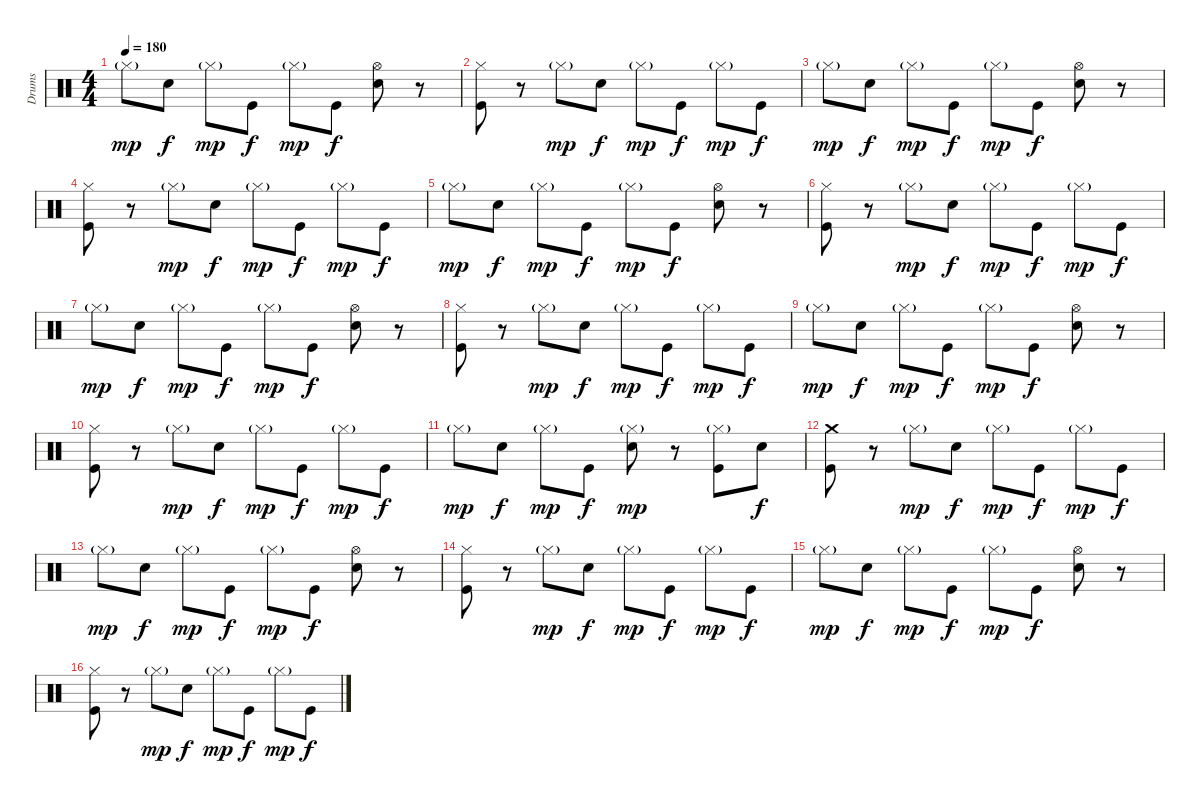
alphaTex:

\track ("Drums" "Drums") {instrument percussion}
\staff {score}
\articulation defaults
\ts (4 4)
\tempo 180
\clef neutral
\ks c "Hi-Hat (closed)"{g}.8{dy mp} "Electric Snare (hit)".8{dy f} "Hi-Hat (closed)"{g}.8{dy mp} "Kick (hit)".8{dy f} "Hi-Hat (closed)"{g}.8{dy mp} "Kick (hit)".8{dy f}
("Hi-Hat (open)" "Electric Snare (hit)").8 r.8 |
("Hi-Hat (closed)" "Kick (hit)").8 r.8 "Hi-Hat (closed)"{g}.8{dy mp} "Electric Snare (hit)".8{dy f} "Hi-Hat (closed)"{g}.8{dy mp} "Kick (hit)".8{dy f} "Hi-Hat (closed)"{g}.8{dy mp} "Kick (hit)".8{dy f} |
"Hi-Hat (closed)"{g}.8{dy mp} "Electric Snare (hit)".8{dy f} "Hi-Hat (closed)"{g}.8{dy mp} "Kick (hit)".8{dy f} "Hi-Hat (closed)"{g}.8{dy mp} "Kick (hit)".8{dy f} ("Hi-Hat (open)" "Electric Snare (hit)").8 r.8 |
("Hi-Hat (closed)" "Kick (hit)").8 r.8 "Hi-Hat (closed)"{g}.8{dy mp} "Electric Snare (hit)".8{dy f} "Hi-Hat (closed)"{g}.8{dy mp} "Kick (hit)".8{dy f} "Hi-Hat (closed)"{g}.8{dy mp} "Kick (hit)".8{dy f} |
"Hi-Hat (closed)"{g}.8{dy mp} "Electric Snare (hit)".8{dy f} "Hi-Hat (closed)"{g}.8{dy mp} "Kick (hit)".8{dy f} "Hi-Hat (closed)"{g}.8{dy mp} "Kick (hit)".8{dy f} ("Hi-Hat (open)" "Electric Snare (hit)").8 r.8 |
("Hi-Hat (closed)" "Kick (hit)").8 r.8 "Hi-Hat (closed)"{g}.8{dy mp} "Electric Snare (hit)".8{dy f} "Hi-Hat (closed)"{g}.8{dy mp} "Kick (hit)".8{dy f} "Hi-Hat (closed)"{g}.8{dy mp} "Kick (hit)".8{dy f} |
"Hi-Hat (closed)"{g}.8{dy mp} "Electric Snare (hit)".8{dy f} "Hi-Hat (closed)"{g}.8{dy mp} "Kick (hit)".8{dy f} "Hi-Hat (closed)"{g}.8{dy mp} "Kick (hit)".8{dy f} ("Hi-Hat (open)" "Electric Snare (hit)").8 r.8 |
("Hi-Hat (closed)" "Kick (hit)").8 r.8 "Hi-Hat (closed)"{g}.8{dy mp} "Electric Snare (hit)".8{dy f} "Hi-Hat (closed)"{g}.8{dy mp} "Kick (hit)".8{dy f} "Hi-Hat (closed)"{g}.8{dy mp} "Kick (hit)".8{dy f} |
"Hi-Hat (closed)"{g}.8{dy mp} "Electric Snare (hit)".8{dy f} "Hi-Hat (closed)"{g}.8{dy mp} "Kick (hit)".8{dy f} "Hi-Hat (closed)"{g}.8{dy mp} "Kick (hit)".8{dy f} ("Hi-Hat (open)" "Electric Snare (hit)").8 r.8 |
("Hi-Hat (closed)" "Kick (hit)").8 r.8 "Hi-Hat (closed)"{g}.8{dy mp} "Electric Snare (hit)".8{dy f} "Hi-Hat (closed)"{g}.8{dy mp} "Kick (hit)".8{dy f} "Hi-Hat (closed)"{g}.8{dy mp} "Kick (hit)".8{dy f} |
"Hi-Hat (closed)"{g}.8{dy mp} "Electric Snare (hit)".8{dy f} "Hi-Hat (closed)"{g}.8{dy mp} "Kick (hit)".8{dy f} ("Hi-Hat (closed)"{g} "Electric Snare (hit)").8{dy mp} r.8 ("Hi-Hat (closed)"{g} "Kick (hit)").8 "Electric Snare (hit)".8{dy f} |
("Crash medium (hit)" "Kick (hit)").8 r.8 "Hi-Hat (closed)"{g}.8{dy mp} "Electric Snare (hit)".8{dy f} "Hi-Hat (closed)"{g}.8{dy mp} "Kick (hit)".8{dy f} "Hi-Hat (closed)"{g}.8{dy mp} "Kick (hit)".8{dy f} |
"Hi-Hat (closed)"{g}.8{dy mp} "Electric Snare (hit)".8{dy f} "Hi-Hat (closed)"{g}.8{dy mp} "Kick (hit)".8{dy f} "Hi-Hat (closed)"{g}.8{dy mp} "Kick (hit)".8{dy f} ("Hi-Hat (open)" "Electric Snare (hit)").8 r.8 |
("Hi-Hat (closed)" "Kick (hit)").8 r.8 "Hi-Hat (closed)"{g}.8{dy mp} "Electric Snare (hit)".8{dy f} "Hi-Hat (closed)"{g}.8{dy mp} "Kick (hit)".8{dy f} "Hi-Hat (closed)"{g}.8{dy mp} "Kick (hit)".8{dy f} |
"Hi-Hat (closed)"{g}.8{dy mp} "Electric Snare (hit)".8{dy f} "Hi-Hat (closed)"{g}.8{dy mp} "Kick (hit)".8{dy f} "Hi-Hat (closed)"{g}.8{dy mp} "Kick (hit)".8{dy f} ("Hi-Hat (open)" "Electric Snare (hit)").8 r.8 |
("Hi-Hat (closed)" "Kick (hit)").8 r.8 "Hi-Hat (closed)"{g}.8{dy mp} "Electric Snare (hit)".8{dy f} "Hi-Hat (closed)"{g}.8{dy mp} "Kick (hit)".8{dy f} "Hi-Hat (closed)"{g}.8{dy mp} "Kick (hit)".8{dy f}
